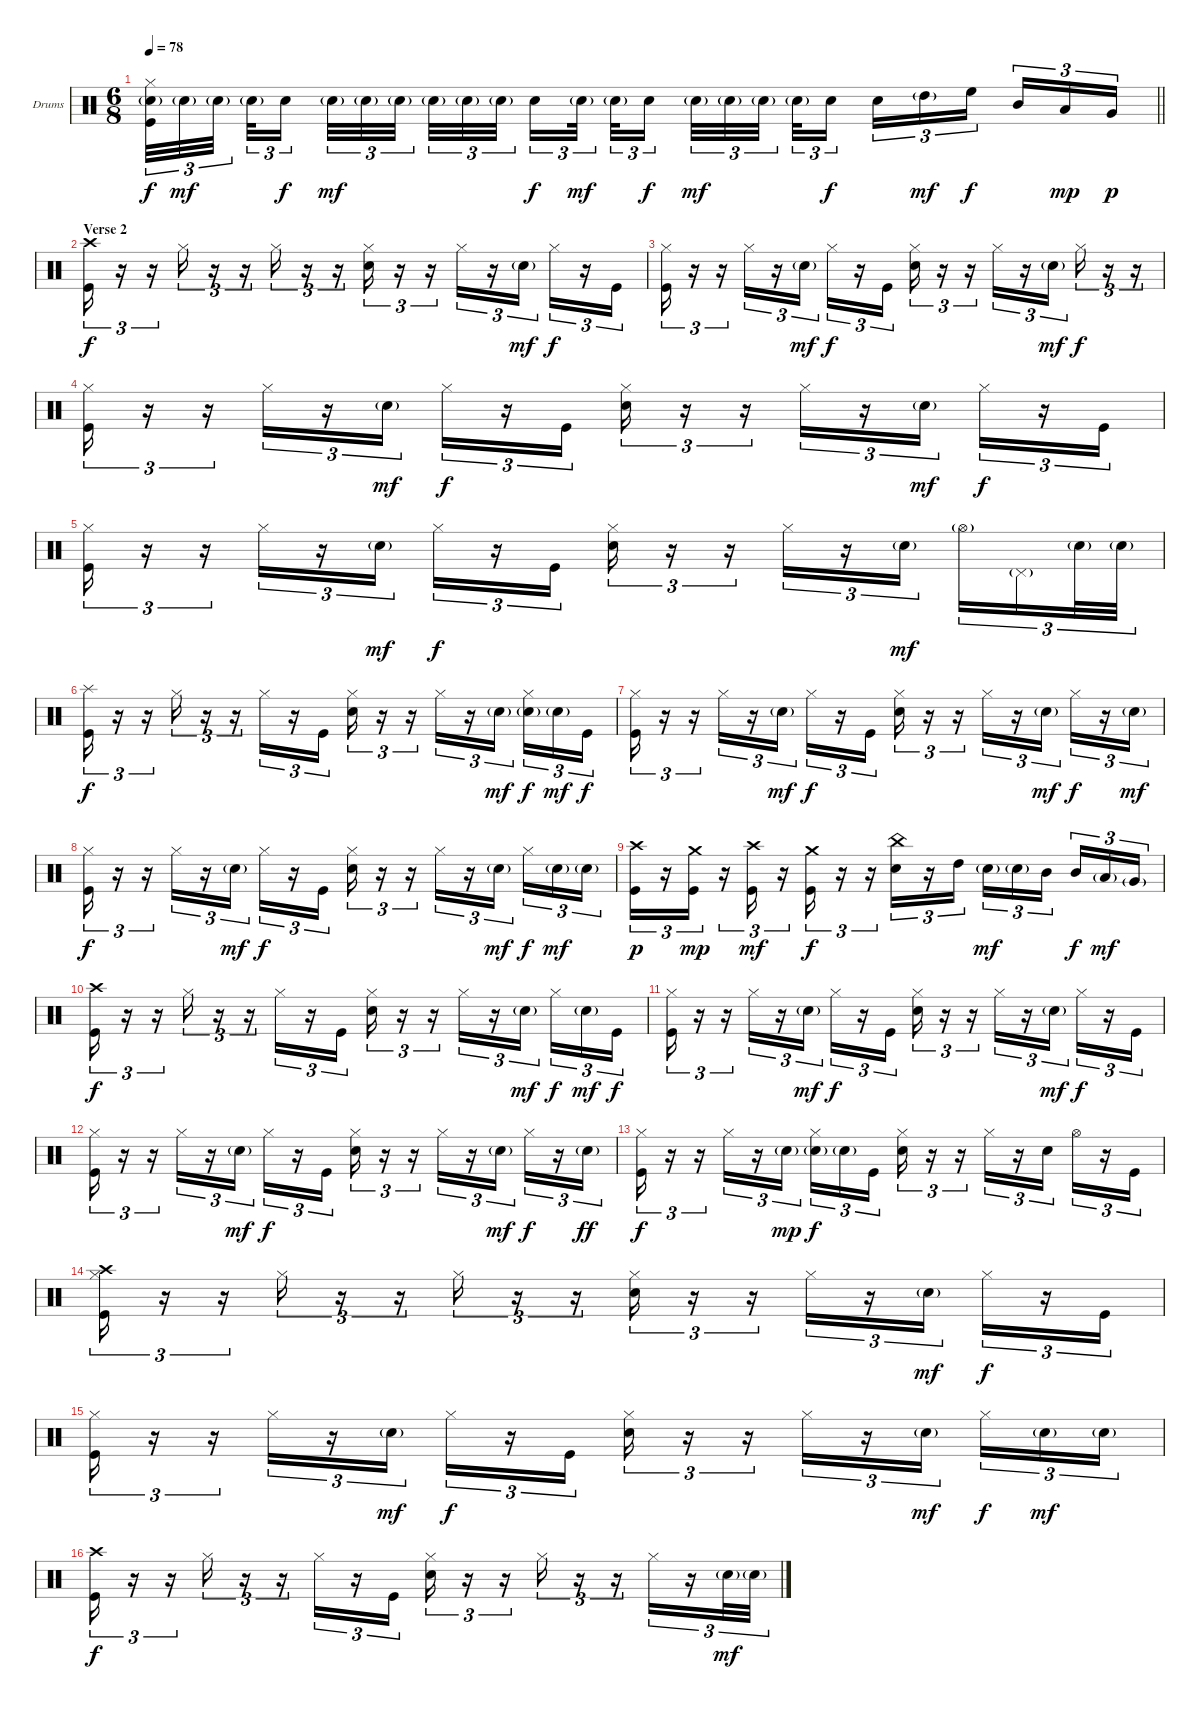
\bracketExtendMode nobrackets
\firstSystemTrackNameOrientation horizontal
\otherSystemsTrackNameOrientation horizontal
\track ("Drumkit" "Drums") {instrument percussion}
\staff {score}
\articulation defaults
\ts (6 8)
\tempo 78
\clef neutral
\barLineRight lightlight
\ks c
("Hi-Hat (closed)" "Snare (hit) 2"{g} "Kick (hit)").32{tu (3 2) dy f} "Snare (hit) 2"{g}.32{tu (3 2) dy mf} "Snare (hit) 2"{g}.32{tu (3 2)} "Snare (hit) 2"{g}.32{tu (3 2)} "Snare (hit) 2".16{tu (3 2) dy f} "Snare (hit) 2"{g}.32{tu (3 2) dy mf} "Snare (hit) 2"{g}.32{tu (3 2)} "Snare (hit) 2"{g}.32{tu (3 2)} "Snare (hit) 2"{g}.32{tu (3 2)} "Snare (hit) 2"{g}.32{tu (3 2)} "Snare (hit) 2"{g}.32{tu (3 2)} "Snare (hit) 2".16{tu (3 2) dy f} "Snare (hit) 2"{g}.32{tu (3 2) dy mf} "Snare (hit) 2"{g}.32{tu (3 2)} "Snare (hit) 2".16{tu (3 2) dy f} "Snare (hit) 2"{g}.32{tu (3 2) dy mf} "Snare (hit) 2"{g}.32{tu (3 2)} "Snare (hit) 2"{g}.32{tu (3 2)} "Snare (hit) 2"{g}.32{tu (3 2)} "Snare (hit) 2".16{tu (3 2) dy f} "Snare (hit) 2".16{tu (3 2)} "High Tom (hit)"{g}.16{tu (3 2) dy mf} "High Floor Tom (hit)".16{tu (3 2) dy f} "Mid Tom (hit)".16{tu (3 2)} "Low Tom (hit)".16{tu (3 2) dy mp} "Very Low Tom (hit)".16{tu (3 2) dy p} |
\section ("" "Verse 2")
("Crash high (hit)" "Kick (hit)").16{tu (3 2) dy f} r.16{tu (3 2)} r.16{tu (3 2)} "Hi-Hat (closed)".16{tu (3 2)} r.16{tu (3 2)} r.16{tu (3 2)} "Hi-Hat (closed)".16{tu (3 2)} r.16{tu (3 2)} r.16{tu (3 2)} ("Hi-Hat (closed)" "Snare (hit) 2").16{tu (3 2)} r.16{tu (3 2)} r.16{tu (3 2)} "Hi-Hat (closed)".16{tu (3 2)} r.16{tu (3 2)} "Snare (hit) 2"{g}.16{tu (3 2) dy mf} "Hi-Hat (closed)".16{tu (3 2) dy f} r.16{tu (3 2)} "Kick (hit)".16{tu (3 2)} |
("Hi-Hat (closed)" "Kick (hit)").16{tu (3 2)} r.16{tu (3 2)} r.16{tu (3 2)} "Hi-Hat (closed)".16{tu (3 2)} r.16{tu (3 2)} "Snare (hit) 2"{g}.16{tu (3 2) dy mf} "Hi-Hat (closed)".16{tu (3 2) dy f} r.16{tu (3 2)} "Kick (hit)".16{tu (3 2)} ("Hi-Hat (closed)" "Snare (hit) 2").16{tu (3 2)} r.16{tu (3 2)} r.16{tu (3 2)} "Hi-Hat (closed)".16{tu (3 2)} r.16{tu (3 2)} "Snare (hit) 2"{g}.16{tu (3 2) dy mf} "Hi-Hat (closed)".16{tu (3 2) dy f} r.16{tu (3 2)} r.16{tu (3 2)} |
("Hi-Hat (closed)" "Kick (hit)").16{tu (3 2)} r.16{tu (3 2)} r.16{tu (3 2)} "Hi-Hat (closed)".16{tu (3 2)} r.16{tu (3 2)} "Snare (hit) 2"{g}.16{tu (3 2) dy mf} "Hi-Hat (closed)".16{tu (3 2) dy f} r.16{tu (3 2)} "Kick (hit)".16{tu (3 2)} ("Hi-Hat (closed)" "Snare (hit) 2").16{tu (3 2)} r.16{tu (3 2)} r.16{tu (3 2)} "Hi-Hat (closed)".16{tu (3 2)} r.16{tu (3 2)} "Snare (hit) 2"{g}.16{tu (3 2) dy mf} "Hi-Hat (closed)".16{tu (3 2) dy f} r.16{tu (3 2)} "Kick (hit)".16{tu (3 2)} |
("Hi-Hat (closed)" "Kick (hit)").16{tu (3 2)} r.16{tu (3 2)} r.16{tu (3 2)} "Hi-Hat (closed)".16{tu (3 2)} r.16{tu (3 2)} "Snare (hit) 2"{g}.16{tu (3 2) dy mf} "Hi-Hat (closed)".16{tu (3 2) dy f} r.16{tu (3 2)} "Kick (hit)".16{tu (3 2)} ("Hi-Hat (closed)" "Snare (hit) 2").16{tu (3 2)} r.16{tu (3 2)} r.16{tu (3 2)} "Hi-Hat (closed)".16{tu (3 2)} r.16{tu (3 2)} "Snare (hit) 2"{g}.16{tu (3 2) dy mf} "Hi-Hat (open)"{g}.16{tu (3 2)} "Pedal Hi-Hat (hit)"{g}.16{tu (3 2)} "Snare (hit) 2"{g}.32{tu (3 2)} "Snare (hit) 2"{g}.32{tu (3 2)} |
("Splash (hit)" "Kick (hit)").16{tu (3 2) dy f} r.16{tu (3 2)} r.16{tu (3 2)} "Hi-Hat (closed)".16{tu (3 2)} r.16{tu (3 2)} r.16{tu (3 2)} "Hi-Hat (closed)".16{tu (3 2)} r.16{tu (3 2)} "Kick (hit)".16{tu (3 2)} ("Hi-Hat (closed)" "Snare (hit) 2").16{tu (3 2)} r.16{tu (3 2)} r.16{tu (3 2)} "Hi-Hat (closed)".16{tu (3 2)} r.16{tu (3 2)} "Snare (hit) 2"{g}.16{tu (3 2) dy mf} ("Hi-Hat (closed)" "Snare (hit) 2"{g}).16{tu (3 2) dy f} "Snare (hit) 2"{g}.16{tu (3 2) dy mf} "Kick (hit)".16{tu (3 2) dy f} |
("Hi-Hat (closed)" "Kick (hit)").16{tu (3 2)} r.16{tu (3 2)} r.16{tu (3 2)} "Hi-Hat (closed)".16{tu (3 2)} r.16{tu (3 2)} "Snare (hit) 2"{g}.16{tu (3 2) dy mf} "Hi-Hat (closed)".16{tu (3 2) dy f} r.16{tu (3 2)} "Kick (hit)".16{tu (3 2)} ("Hi-Hat (closed)" "Snare (hit) 2").16{tu (3 2)} r.16{tu (3 2)} r.16{tu (3 2)} "Hi-Hat (closed)".16{tu (3 2)} r.16{tu (3 2)} "Snare (hit) 2"{g}.16{tu (3 2) dy mf} "Hi-Hat (closed)".16{tu (3 2) dy f} r.16{tu (3 2)} "Snare (hit) 2"{g}.16{tu (3 2) dy mf} |
("Hi-Hat (closed)" "Kick (hit)").16{tu (3 2) dy f} r.16{tu (3 2)} r.16{tu (3 2)} "Hi-Hat (closed)".16{tu (3 2)} r.16{tu (3 2)} "Snare (hit) 2"{g}.16{tu (3 2) dy mf} "Hi-Hat (closed)".16{tu (3 2) dy f} r.16{tu (3 2)} "Kick (hit)".16{tu (3 2)} ("Hi-Hat (closed)" "Snare (hit) 2").16{tu (3 2)} r.16{tu (3 2)} r.16{tu (3 2)} "Hi-Hat (closed)".16{tu (3 2)} r.16{tu (3 2)} "Snare (hit) 2"{g}.16{tu (3 2) dy mf} "Hi-Hat (closed)".16{tu (3 2) dy f} "Snare (hit) 2"{g}.16{tu (3 2) dy mf} "Snare (hit) 2"{g}.16{tu (3 2)} |
("Crash high (hit)" "Kick (hit)").16{tu (3 2) dy p} r.16{tu (3 2)} ("Crash medium (hit)" "Kick (hit)").16{tu (3 2) dy mp} r.16{tu (3 2)} ("Crash high (hit)" "Kick (hit)").16{tu (3 2) dy mf} r.16{tu (3 2)} ("Crash medium (hit)" "Kick (hit)").16{tu (3 2) dy f} r.16{tu (3 2)} r.16{tu (3 2)} ("China (hit)" "Snare (hit) 2").16{tu (3 2)} r.16{tu (3 2)} "High Tom (hit)".16{tu (3 2)} "Snare (hit) 2"{g}.16{tu (3 2) dy mf} "Snare (hit) 2"{g}.16{tu (3 2)} "Mid Tom (hit)".16{tu (3 2)} "Mid Tom (hit)".16{tu (3 2) dy f} "Low Tom (hit)"{g}.16{tu (3 2) dy mf} "Very Low Tom (hit)"{g}.16{tu (3 2)} |
("Crash high (hit)" "Kick (hit)").16{tu (3 2) dy f} r.16{tu (3 2)} r.16{tu (3 2)} "Hi-Hat (closed)".16{tu (3 2)} r.16{tu (3 2)} r.16{tu (3 2)} "Hi-Hat (closed)".16{tu (3 2)} r.16{tu (3 2)} "Kick (hit)".16{tu (3 2)} ("Hi-Hat (closed)" "Snare (hit) 2").16{tu (3 2)} r.16{tu (3 2)} r.16{tu (3 2)} "Hi-Hat (closed)".16{tu (3 2)} r.16{tu (3 2)} "Snare (hit) 2"{g}.16{tu (3 2) dy mf} "Hi-Hat (closed)".16{tu (3 2) dy f} "Snare (hit) 2"{g}.16{tu (3 2) dy mf} "Kick (hit)".16{tu (3 2) dy f} |
("Hi-Hat (closed)" "Kick (hit)").16{tu (3 2)} r.16{tu (3 2)} r.16{tu (3 2)} "Hi-Hat (closed)".16{tu (3 2)} r.16{tu (3 2)} "Snare (hit) 2"{g}.16{tu (3 2) dy mf} "Hi-Hat (closed)".16{tu (3 2) dy f} r.16{tu (3 2)} "Kick (hit)".16{tu (3 2)} ("Hi-Hat (closed)" "Snare (hit) 2").16{tu (3 2)} r.16{tu (3 2)} r.16{tu (3 2)} "Hi-Hat (closed)".16{tu (3 2)} r.16{tu (3 2)} "Snare (hit) 2"{g}.16{tu (3 2) dy mf} "Hi-Hat (closed)".16{tu (3 2) dy f} r.16{tu (3 2)} "Kick (hit)".16{tu (3 2)} |
("Hi-Hat (closed)" "Kick (hit)").16{tu (3 2)} r.16{tu (3 2)} r.16{tu (3 2)} "Hi-Hat (closed)".16{tu (3 2)} r.16{tu (3 2)} "Snare (hit) 2"{g}.16{tu (3 2) dy mf} "Hi-Hat (closed)".16{tu (3 2) dy f} r.16{tu (3 2)} "Kick (hit)".16{tu (3 2)} ("Hi-Hat (closed)" "Snare (hit) 2").16{tu (3 2)} r.16{tu (3 2)} r.16{tu (3 2)} "Hi-Hat (closed)".16{tu (3 2)} r.16{tu (3 2)} "Snare (hit) 2"{g}.16{tu (3 2) dy mf} "Hi-Hat (closed)".16{tu (3 2) dy f} r.16{tu (3 2)} "Snare (hit) 2"{g}.16{tu (3 2) dy ff} |
("Hi-Hat (closed)" "Kick (hit)").16{tu (3 2) dy f} r.16{tu (3 2)} r.16{tu (3 2)} "Hi-Hat (closed)".16{tu (3 2)} r.16{tu (3 2)} "Snare (hit) 2"{g}.16{tu (3 2) dy mp} ("Hi-Hat (closed)" "Snare (hit) 2"{g}).16{tu (3 2) dy f} "Snare (hit) 2"{g}.16{tu (3 2)} "Kick (hit)".16{tu (3 2)} ("Hi-Hat (closed)" "Snare (hit) 2").16{tu (3 2)} r.16{tu (3 2)} r.16{tu (3 2)} "Hi-Hat (closed)".16{tu (3 2)} r.16{tu (3 2)} "Snare (hit) 2".16{tu (3 2)} "Hi-Hat (open)".16{tu (3 2)} r.16{tu (3 2)} "Kick (hit)".16{tu (3 2)} |
("Hi-Hat (closed)" "Crash high (hit)" "Kick (hit)").16{tu (3 2)} r.16{tu (3 2)} r.16{tu (3 2)} "Hi-Hat (closed)".16{tu (3 2)} r.16{tu (3 2)} r.16{tu (3 2)} "Hi-Hat (closed)".16{tu (3 2)} r.16{tu (3 2)} r.16{tu (3 2)} ("Hi-Hat (closed)" "Snare (hit) 2").16{tu (3 2)} r.16{tu (3 2)} r.16{tu (3 2)} "Hi-Hat (closed)".16{tu (3 2)} r.16{tu (3 2)} "Snare (hit) 2"{g}.16{tu (3 2) dy mf} "Hi-Hat (closed)".16{tu (3 2) dy f} r.16{tu (3 2)} "Kick (hit)".16{tu (3 2)} |
("Hi-Hat (closed)" "Kick (hit)").16{tu (3 2)} r.16{tu (3 2)} r.16{tu (3 2)} "Hi-Hat (closed)".16{tu (3 2)} r.16{tu (3 2)} "Snare (hit) 2"{g}.16{tu (3 2) dy mf} "Hi-Hat (closed)".16{tu (3 2) dy f} r.16{tu (3 2)} "Kick (hit)".16{tu (3 2)} ("Hi-Hat (closed)" "Snare (hit) 2").16{tu (3 2)} r.16{tu (3 2)} r.16{tu (3 2)} "Hi-Hat (closed)".16{tu (3 2)} r.16{tu (3 2)} "Snare (hit) 2"{g}.16{tu (3 2) dy mf} "Hi-Hat (closed)".16{tu (3 2) dy f} "Snare (hit) 2"{g}.16{tu (3 2) dy mf} "Snare (hit) 2"{g}.16{tu (3 2)} |
("Crash high (hit)" "Kick (hit)").16{tu (3 2) dy f} r.16{tu (3 2)} r.16{tu (3 2)} "Hi-Hat (closed)".16{tu (3 2)} r.16{tu (3 2)} r.16{tu (3 2)} "Hi-Hat (closed)".16{tu (3 2)} r.16{tu (3 2)} "Kick (hit)".16{tu (3 2)} ("Hi-Hat (closed)" "Snare (hit) 2").16{tu (3 2)} r.16{tu (3 2)} r.16{tu (3 2)} "Hi-Hat (closed)".16{tu (3 2)} r.16{tu (3 2)} r.16{tu (3 2)} "Hi-Hat (closed)".16{tu (3 2)} r.16{tu (3 2)} "Snare (hit) 2"{g}.32{tu (3 2) dy mf} "Snare (hit) 2"{g}.32{tu (3 2)}
